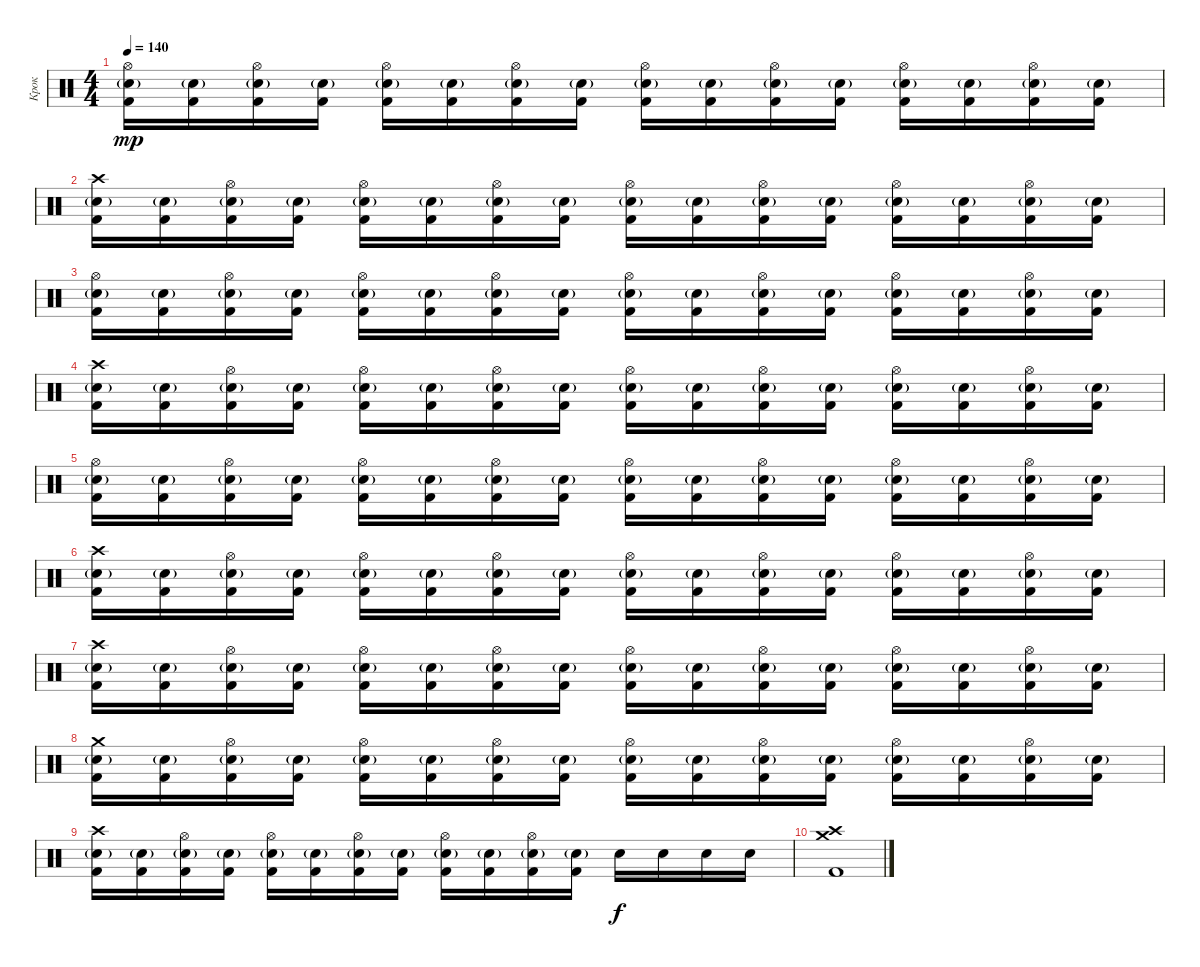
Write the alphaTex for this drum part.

\track ("Крок" "Крок") {instrument percussion}
\staff {score}
\articulation defaults
\ts (4 4)
\tempo 140
\clef neutral
\ks c
("Hi-Hat (open)" "Electric Snare (hit)"{g} "Kick (hit) 2").16{dy mp} ("Electric Snare (hit)"{g} "Kick (hit) 2").16 ("Hi-Hat (open)" "Electric Snare (hit)"{g} "Kick (hit) 2").16 ("Electric Snare (hit)"{g} "Kick (hit) 2").16 ("Hi-Hat (open)" "Electric Snare (hit)"{g} "Kick (hit) 2").16 ("Electric Snare (hit)"{g} "Kick (hit) 2").16 ("Hi-Hat (open)" "Electric Snare (hit)"{g} "Kick (hit) 2").16 ("Electric Snare (hit)"{g} "Kick (hit) 2").16 ("Hi-Hat (open)" "Electric Snare (hit)"{g} "Kick (hit) 2").16 ("Electric Snare (hit)"{g} "Kick (hit) 2").16 ("Hi-Hat (open)" "Electric Snare (hit)"{g} "Kick (hit) 2").16 ("Electric Snare (hit)"{g} "Kick (hit) 2").16 ("Hi-Hat (open)" "Electric Snare (hit)"{g} "Kick (hit) 2").16 ("Electric Snare (hit)"{g} "Kick (hit) 2").16 ("Hi-Hat (open)" "Electric Snare (hit)"{g} "Kick (hit) 2").16 ("Electric Snare (hit)"{g} "Kick (hit) 2").16 |
("Crash high (hit)" "Electric Snare (hit)"{g} "Kick (hit) 2").16 ("Electric Snare (hit)"{g} "Kick (hit) 2").16 ("Hi-Hat (open)" "Electric Snare (hit)"{g} "Kick (hit) 2").16 ("Electric Snare (hit)"{g} "Kick (hit) 2").16 ("Hi-Hat (open)" "Electric Snare (hit)"{g} "Kick (hit) 2").16 ("Electric Snare (hit)"{g} "Kick (hit) 2").16 ("Hi-Hat (open)" "Electric Snare (hit)"{g} "Kick (hit) 2").16 ("Electric Snare (hit)"{g} "Kick (hit) 2").16 ("Hi-Hat (open)" "Electric Snare (hit)"{g} "Kick (hit) 2").16 ("Electric Snare (hit)"{g} "Kick (hit) 2").16 ("Hi-Hat (open)" "Electric Snare (hit)"{g} "Kick (hit) 2").16 ("Electric Snare (hit)"{g} "Kick (hit) 2").16 ("Hi-Hat (open)" "Electric Snare (hit)"{g} "Kick (hit) 2").16 ("Electric Snare (hit)"{g} "Kick (hit) 2").16 ("Hi-Hat (open)" "Electric Snare (hit)"{g} "Kick (hit) 2").16 ("Electric Snare (hit)"{g} "Kick (hit) 2").16 |
("Hi-Hat (open)" "Electric Snare (hit)"{g} "Kick (hit) 2").16 ("Electric Snare (hit)"{g} "Kick (hit) 2").16 ("Hi-Hat (open)" "Electric Snare (hit)"{g} "Kick (hit) 2").16 ("Electric Snare (hit)"{g} "Kick (hit) 2").16 ("Hi-Hat (open)" "Electric Snare (hit)"{g} "Kick (hit) 2").16 ("Electric Snare (hit)"{g} "Kick (hit) 2").16 ("Hi-Hat (open)" "Electric Snare (hit)"{g} "Kick (hit) 2").16 ("Electric Snare (hit)"{g} "Kick (hit) 2").16 ("Hi-Hat (open)" "Electric Snare (hit)"{g} "Kick (hit) 2").16 ("Electric Snare (hit)"{g} "Kick (hit) 2").16 ("Hi-Hat (open)" "Electric Snare (hit)"{g} "Kick (hit) 2").16 ("Electric Snare (hit)"{g} "Kick (hit) 2").16 ("Hi-Hat (open)" "Electric Snare (hit)"{g} "Kick (hit) 2").16 ("Electric Snare (hit)"{g} "Kick (hit) 2").16 ("Hi-Hat (open)" "Electric Snare (hit)"{g} "Kick (hit) 2").16 ("Electric Snare (hit)"{g} "Kick (hit) 2").16 |
("Crash high (hit)" "Electric Snare (hit)"{g} "Kick (hit) 2").16 ("Electric Snare (hit)"{g} "Kick (hit) 2").16 ("Hi-Hat (open)" "Electric Snare (hit)"{g} "Kick (hit) 2").16 ("Electric Snare (hit)"{g} "Kick (hit) 2").16 ("Hi-Hat (open)" "Electric Snare (hit)"{g} "Kick (hit) 2").16 ("Electric Snare (hit)"{g} "Kick (hit) 2").16 ("Hi-Hat (open)" "Electric Snare (hit)"{g} "Kick (hit) 2").16 ("Electric Snare (hit)"{g} "Kick (hit) 2").16 ("Hi-Hat (open)" "Electric Snare (hit)"{g} "Kick (hit) 2").16 ("Electric Snare (hit)"{g} "Kick (hit) 2").16 ("Hi-Hat (open)" "Electric Snare (hit)"{g} "Kick (hit) 2").16 ("Electric Snare (hit)"{g} "Kick (hit) 2").16 ("Hi-Hat (open)" "Electric Snare (hit)"{g} "Kick (hit) 2").16 ("Electric Snare (hit)"{g} "Kick (hit) 2").16 ("Hi-Hat (open)" "Electric Snare (hit)"{g} "Kick (hit) 2").16 ("Electric Snare (hit)"{g} "Kick (hit) 2").16 |
("Hi-Hat (open)" "Electric Snare (hit)"{g} "Kick (hit) 2").16 ("Electric Snare (hit)"{g} "Kick (hit) 2").16 ("Hi-Hat (open)" "Electric Snare (hit)"{g} "Kick (hit) 2").16 ("Electric Snare (hit)"{g} "Kick (hit) 2").16 ("Hi-Hat (open)" "Electric Snare (hit)"{g} "Kick (hit) 2").16 ("Electric Snare (hit)"{g} "Kick (hit) 2").16 ("Hi-Hat (open)" "Electric Snare (hit)"{g} "Kick (hit) 2").16 ("Electric Snare (hit)"{g} "Kick (hit) 2").16 ("Hi-Hat (open)" "Electric Snare (hit)"{g} "Kick (hit) 2").16 ("Electric Snare (hit)"{g} "Kick (hit) 2").16 ("Hi-Hat (open)" "Electric Snare (hit)"{g} "Kick (hit) 2").16 ("Electric Snare (hit)"{g} "Kick (hit) 2").16 ("Hi-Hat (open)" "Electric Snare (hit)"{g} "Kick (hit) 2").16 ("Electric Snare (hit)"{g} "Kick (hit) 2").16 ("Hi-Hat (open)" "Electric Snare (hit)"{g} "Kick (hit) 2").16 ("Electric Snare (hit)"{g} "Kick (hit) 2").16 |
("Crash high (hit)" "Electric Snare (hit)"{g} "Kick (hit) 2").16 ("Electric Snare (hit)"{g} "Kick (hit) 2").16 ("Hi-Hat (open)" "Electric Snare (hit)"{g} "Kick (hit) 2").16 ("Electric Snare (hit)"{g} "Kick (hit) 2").16 ("Hi-Hat (open)" "Electric Snare (hit)"{g} "Kick (hit) 2").16 ("Electric Snare (hit)"{g} "Kick (hit) 2").16 ("Hi-Hat (open)" "Electric Snare (hit)"{g} "Kick (hit) 2").16 ("Electric Snare (hit)"{g} "Kick (hit) 2").16 ("Hi-Hat (open)" "Electric Snare (hit)"{g} "Kick (hit) 2").16 ("Electric Snare (hit)"{g} "Kick (hit) 2").16 ("Hi-Hat (open)" "Electric Snare (hit)"{g} "Kick (hit) 2").16 ("Electric Snare (hit)"{g} "Kick (hit) 2").16 ("Hi-Hat (open)" "Electric Snare (hit)"{g} "Kick (hit) 2").16 ("Electric Snare (hit)"{g} "Kick (hit) 2").16 ("Hi-Hat (open)" "Electric Snare (hit)"{g} "Kick (hit) 2").16 ("Electric Snare (hit)"{g} "Kick (hit) 2").16 |
("Crash high (hit)" "Electric Snare (hit)"{g} "Kick (hit) 2").16 ("Electric Snare (hit)"{g} "Kick (hit) 2").16 ("Hi-Hat (open)" "Electric Snare (hit)"{g} "Kick (hit) 2").16 ("Electric Snare (hit)"{g} "Kick (hit) 2").16 ("Hi-Hat (open)" "Electric Snare (hit)"{g} "Kick (hit) 2").16 ("Electric Snare (hit)"{g} "Kick (hit) 2").16 ("Hi-Hat (open)" "Electric Snare (hit)"{g} "Kick (hit) 2").16 ("Electric Snare (hit)"{g} "Kick (hit) 2").16 ("Hi-Hat (open)" "Electric Snare (hit)"{g} "Kick (hit) 2").16 ("Electric Snare (hit)"{g} "Kick (hit) 2").16 ("Hi-Hat (open)" "Electric Snare (hit)"{g} "Kick (hit) 2").16 ("Electric Snare (hit)"{g} "Kick (hit) 2").16 ("Hi-Hat (open)" "Electric Snare (hit)"{g} "Kick (hit) 2").16 ("Electric Snare (hit)"{g} "Kick (hit) 2").16 ("Hi-Hat (open)" "Electric Snare (hit)"{g} "Kick (hit) 2").16 ("Electric Snare (hit)"{g} "Kick (hit) 2").16 |
("Crash medium (hit)" "Electric Snare (hit)"{g} "Kick (hit) 2").16 ("Electric Snare (hit)"{g} "Kick (hit) 2").16 ("Hi-Hat (open)" "Electric Snare (hit)"{g} "Kick (hit) 2").16 ("Electric Snare (hit)"{g} "Kick (hit) 2").16 ("Hi-Hat (open)" "Electric Snare (hit)"{g} "Kick (hit) 2").16 ("Electric Snare (hit)"{g} "Kick (hit) 2").16 ("Hi-Hat (open)" "Electric Snare (hit)"{g} "Kick (hit) 2").16 ("Electric Snare (hit)"{g} "Kick (hit) 2").16 ("Hi-Hat (open)" "Electric Snare (hit)"{g} "Kick (hit) 2").16 ("Electric Snare (hit)"{g} "Kick (hit) 2").16 ("Hi-Hat (open)" "Electric Snare (hit)"{g} "Kick (hit) 2").16 ("Electric Snare (hit)"{g} "Kick (hit) 2").16 ("Hi-Hat (open)" "Electric Snare (hit)"{g} "Kick (hit) 2").16 ("Electric Snare (hit)"{g} "Kick (hit) 2").16 ("Hi-Hat (open)" "Electric Snare (hit)"{g} "Kick (hit) 2").16 ("Electric Snare (hit)"{g} "Kick (hit) 2").16 |
("Crash high (hit)" "Electric Snare (hit)"{g} "Kick (hit) 2").16 ("Electric Snare (hit)"{g} "Kick (hit) 2").16 ("Hi-Hat (open)" "Electric Snare (hit)"{g} "Kick (hit) 2").16 ("Electric Snare (hit)"{g} "Kick (hit) 2").16 ("Hi-Hat (open)" "Electric Snare (hit)"{g} "Kick (hit) 2").16 ("Electric Snare (hit)"{g} "Kick (hit) 2").16 ("Hi-Hat (open)" "Electric Snare (hit)"{g} "Kick (hit) 2").16 ("Electric Snare (hit)"{g} "Kick (hit) 2").16 ("Hi-Hat (open)" "Electric Snare (hit)"{g} "Kick (hit) 2").16 ("Electric Snare (hit)"{g} "Kick (hit) 2").16 ("Hi-Hat (open)" "Electric Snare (hit)"{g} "Kick (hit) 2").16 ("Electric Snare (hit)"{g} "Kick (hit) 2").16 "Electric Snare (hit)".16{dy f} "Electric Snare (hit)".16 "Electric Snare (hit)".16 "Electric Snare (hit)".16 |
("Crash medium (hit)" "Crash high (hit)" "Kick (hit) 2").1
